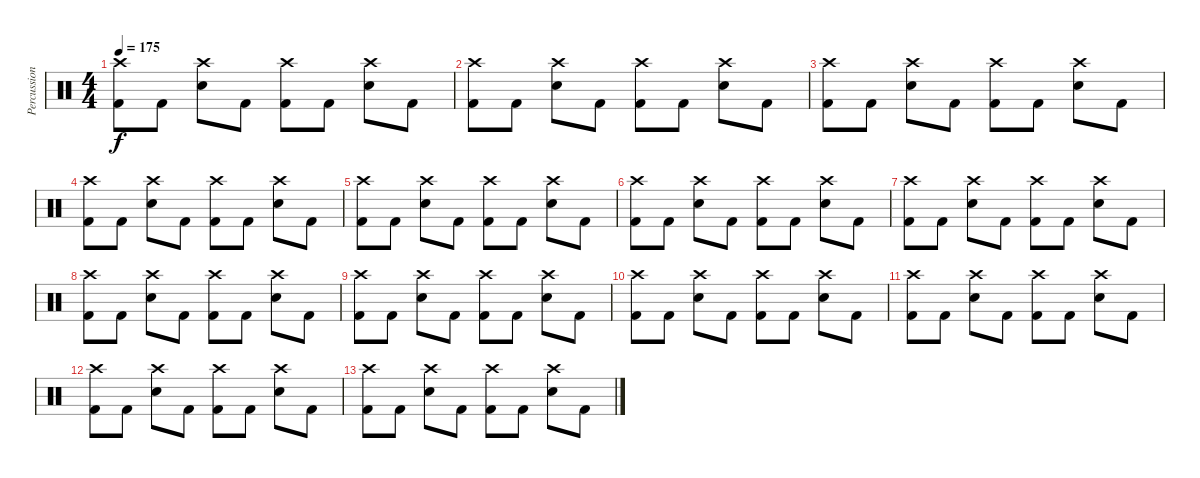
\track ("Percussion" "Percussion") {instrument percussion}
\staff {score}
\articulation defaults
\ts (4 4)
\tempo 175
\clef neutral
\ks c
("Kick (hit) 2" "Crash high (hit)").8{dy f} "Kick (hit) 2".8 ("Electric Snare (hit)" "Crash high (hit)").8 "Kick (hit) 2".8 ("Kick (hit) 2" "Crash high (hit)").8 "Kick (hit) 2".8 ("Electric Snare (hit)" "Crash high (hit)").8 "Kick (hit) 2".8 |
("Kick (hit) 2" "Crash high (hit)").8 "Kick (hit) 2".8 ("Electric Snare (hit)" "Crash high (hit)").8 "Kick (hit) 2".8 ("Kick (hit) 2" "Crash high (hit)").8 "Kick (hit) 2".8 ("Electric Snare (hit)" "Crash high (hit)").8 "Kick (hit) 2".8 |
("Kick (hit) 2" "Crash high (hit)").8 "Kick (hit) 2".8 ("Electric Snare (hit)" "Crash high (hit)").8 "Kick (hit) 2".8 ("Kick (hit) 2" "Crash high (hit)").8 "Kick (hit) 2".8 ("Electric Snare (hit)" "Crash high (hit)").8 "Kick (hit) 2".8 |
("Kick (hit) 2" "Crash high (hit)").8 "Kick (hit) 2".8 ("Electric Snare (hit)" "Crash high (hit)").8 "Kick (hit) 2".8 ("Kick (hit) 2" "Crash high (hit)").8 "Kick (hit) 2".8 ("Electric Snare (hit)" "Crash high (hit)").8 "Kick (hit) 2".8 |
("Kick (hit) 2" "Crash high (hit)").8 "Kick (hit) 2".8 ("Electric Snare (hit)" "Crash high (hit)").8 "Kick (hit) 2".8 ("Kick (hit) 2" "Crash high (hit)").8 "Kick (hit) 2".8 ("Electric Snare (hit)" "Crash high (hit)").8 "Kick (hit) 2".8 |
("Kick (hit) 2" "Crash high (hit)").8 "Kick (hit) 2".8 ("Electric Snare (hit)" "Crash high (hit)").8 "Kick (hit) 2".8 ("Kick (hit) 2" "Crash high (hit)").8 "Kick (hit) 2".8 ("Electric Snare (hit)" "Crash high (hit)").8 "Kick (hit) 2".8 |
("Kick (hit) 2" "Crash high (hit)").8 "Kick (hit) 2".8 ("Electric Snare (hit)" "Crash high (hit)").8 "Kick (hit) 2".8 ("Kick (hit) 2" "Crash high (hit)").8 "Kick (hit) 2".8 ("Electric Snare (hit)" "Crash high (hit)").8 "Kick (hit) 2".8 |
("Kick (hit) 2" "Crash high (hit)").8 "Kick (hit) 2".8 ("Electric Snare (hit)" "Crash high (hit)").8 "Kick (hit) 2".8 ("Kick (hit) 2" "Crash high (hit)").8 "Kick (hit) 2".8 ("Electric Snare (hit)" "Crash high (hit)").8 "Kick (hit) 2".8 |
("Kick (hit) 2" "Crash high (hit)").8 "Kick (hit) 2".8 ("Electric Snare (hit)" "Crash high (hit)").8 "Kick (hit) 2".8 ("Kick (hit) 2" "Crash high (hit)").8 "Kick (hit) 2".8 ("Electric Snare (hit)" "Crash high (hit)").8 "Kick (hit) 2".8 |
("Kick (hit) 2" "Crash high (hit)").8 "Kick (hit) 2".8 ("Electric Snare (hit)" "Crash high (hit)").8 "Kick (hit) 2".8 ("Kick (hit) 2" "Crash high (hit)").8 "Kick (hit) 2".8 ("Electric Snare (hit)" "Crash high (hit)").8 "Kick (hit) 2".8 |
("Kick (hit) 2" "Crash high (hit)").8 "Kick (hit) 2".8 ("Electric Snare (hit)" "Crash high (hit)").8 "Kick (hit) 2".8 ("Kick (hit) 2" "Crash high (hit)").8 "Kick (hit) 2".8 ("Electric Snare (hit)" "Crash high (hit)").8 "Kick (hit) 2".8 |
("Kick (hit) 2" "Crash high (hit)").8 "Kick (hit) 2".8 ("Electric Snare (hit)" "Crash high (hit)").8 "Kick (hit) 2".8 ("Kick (hit) 2" "Crash high (hit)").8 "Kick (hit) 2".8 ("Electric Snare (hit)" "Crash high (hit)").8 "Kick (hit) 2".8 |
("Kick (hit) 2" "Crash high (hit)").8 "Kick (hit) 2".8 ("Electric Snare (hit)" "Crash high (hit)").8 "Kick (hit) 2".8 ("Kick (hit) 2" "Crash high (hit)").8 "Kick (hit) 2".8 ("Electric Snare (hit)" "Crash high (hit)").8 "Kick (hit) 2".8
